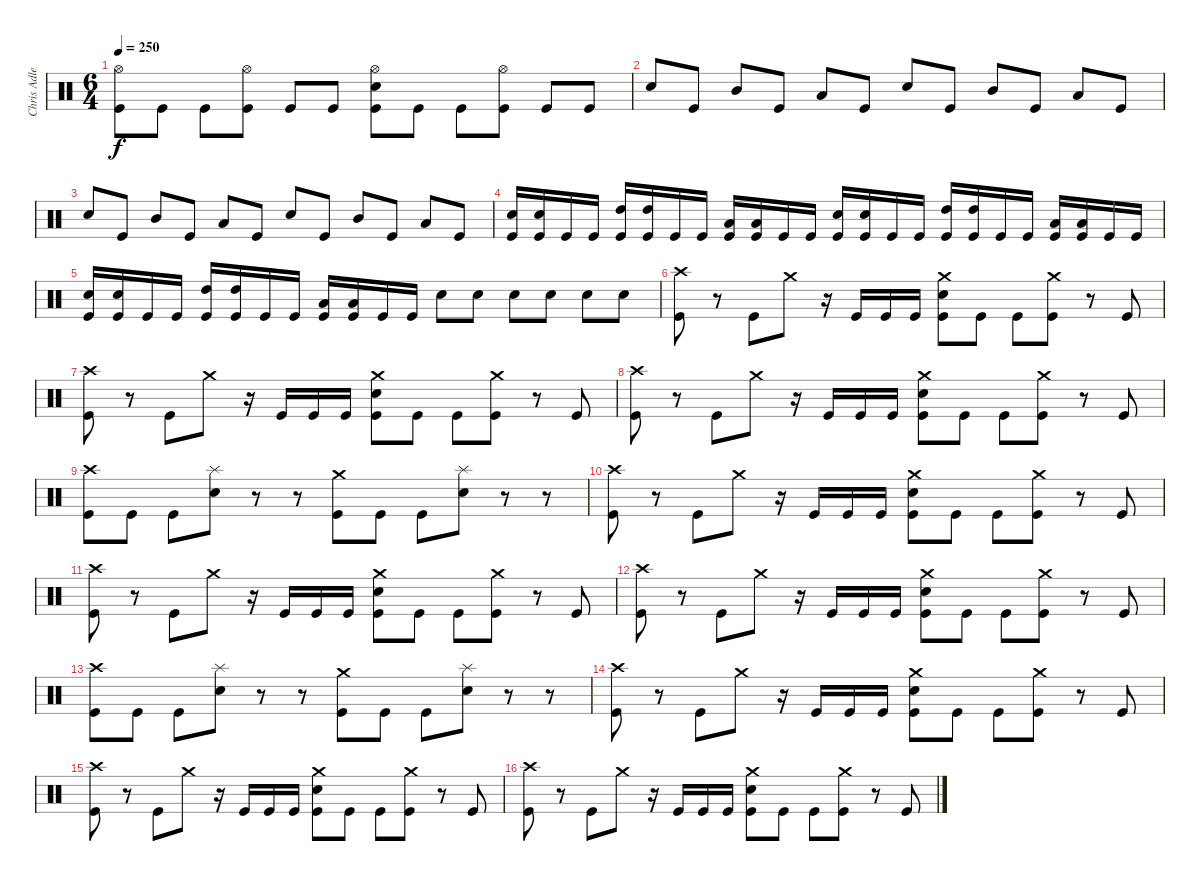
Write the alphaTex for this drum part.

\track ("Chris Adler" "Chris Adle") {instrument percussion}
\staff {score}
\articulation defaults
\ts (6 4)
\tempo 250
\clef neutral
\ks c
("Hi-Hat (open)" "Kick (hit)").8{dy f} "Kick (hit)".8 "Kick (hit)".8 ("Hi-Hat (open)" "Kick (hit)").8 "Kick (hit)".8 "Kick (hit)".8 ("Hi-Hat (open)" "Electric Snare (hit)" "Kick (hit)").8 "Kick (hit)".8 "Kick (hit)".8 ("Hi-Hat (open)" "Kick (hit)").8 "Kick (hit)".8 "Kick (hit)".8 |
"Electric Snare (hit)".8 "Kick (hit)".8 "Mid Tom (hit)".8 "Kick (hit)".8 "Low Tom (hit)".8 "Kick (hit)".8 "Electric Snare (hit)".8 "Kick (hit)".8 "Mid Tom (hit)".8 "Kick (hit)".8 "Low Tom (hit)".8 "Kick (hit)".8 |
"Electric Snare (hit)".8 "Kick (hit)".8 "Mid Tom (hit)".8 "Kick (hit)".8 "Low Tom (hit)".8 "Kick (hit)".8 "Electric Snare (hit)".8 "Kick (hit)".8 "Mid Tom (hit)".8 "Kick (hit)".8 "Low Tom (hit)".8 "Kick (hit)".8 |
("Electric Snare (hit)" "Kick (hit)").16 ("Electric Snare (hit)" "Kick (hit)").16 "Kick (hit)".16 "Kick (hit)".16 ("High Tom (hit)" "Kick (hit)").16 ("High Tom (hit)" "Kick (hit)").16 "Kick (hit)".16 "Kick (hit)".16 ("Low Tom (hit)" "Kick (hit)").16 ("Low Tom (hit)" "Kick (hit)").16 "Kick (hit)".16 "Kick (hit)".16 ("Electric Snare (hit)" "Kick (hit)").16 ("Electric Snare (hit)" "Kick (hit)").16 "Kick (hit)".16 "Kick (hit)".16 ("High Tom (hit)" "Kick (hit)").16 ("High Tom (hit)" "Kick (hit)").16 "Kick (hit)".16 "Kick (hit)".16 ("Low Tom (hit)" "Kick (hit)").16 ("Low Tom (hit)" "Kick (hit)").16 "Kick (hit)".16 "Kick (hit)".16 |
("Electric Snare (hit)" "Kick (hit)").16 ("Electric Snare (hit)" "Kick (hit)").16 "Kick (hit)".16 "Kick (hit)".16 ("High Tom (hit)" "Kick (hit)").16 ("High Tom (hit)" "Kick (hit)").16 "Kick (hit)".16 "Kick (hit)".16 ("Low Tom (hit)" "Kick (hit)").16 ("Low Tom (hit)" "Kick (hit)").16 "Kick (hit)".16 "Kick (hit)".16 "Electric Snare (hit)".8 "Electric Snare (hit)".8 "Electric Snare (hit)".8 "Electric Snare (hit)".8 "Electric Snare (hit)".8 "Electric Snare (hit)".8 |
("Crash high (hit)" "Kick (hit)").8 r.8 "Kick (hit)".8 "Crash medium (hit)".8 r.16 "Kick (hit)".16 "Kick (hit)".16 "Kick (hit)".16 ("Crash medium (hit)" "Electric Snare (hit)" "Kick (hit)").8 "Kick (hit)".8 "Kick (hit)".8 ("Crash medium (hit)" "Kick (hit)").8 r.8 "Kick (hit)".8 |
("Crash high (hit)" "Kick (hit)").8 r.8 "Kick (hit)".8 "Crash medium (hit)".8 r.16 "Kick (hit)".16 "Kick (hit)".16 "Kick (hit)".16 ("Crash medium (hit)" "Electric Snare (hit)" "Kick (hit)").8 "Kick (hit)".8 "Kick (hit)".8 ("Crash medium (hit)" "Kick (hit)").8 r.8 "Kick (hit)".8 |
("Crash high (hit)" "Kick (hit)").8 r.8 "Kick (hit)".8 "Crash medium (hit)".8 r.16 "Kick (hit)".16 "Kick (hit)".16 "Kick (hit)".16 ("Crash medium (hit)" "Electric Snare (hit)" "Kick (hit)").8 "Kick (hit)".8 "Kick (hit)".8 ("Crash medium (hit)" "Kick (hit)").8 r.8 "Kick (hit)".8 |
("Crash high (hit)" "Kick (hit)").8 "Kick (hit)".8 "Kick (hit)".8 ("Splash (hit)" "Electric Snare (hit)").8 r.8 r.8 ("Crash medium (hit)" "Kick (hit)").8 "Kick (hit)".8 "Kick (hit)".8 ("Splash (hit)" "Electric Snare (hit)").8 r.8 r.8 |
("Crash high (hit)" "Kick (hit)").8 r.8 "Kick (hit)".8 "Crash medium (hit)".8 r.16 "Kick (hit)".16 "Kick (hit)".16 "Kick (hit)".16 ("Crash medium (hit)" "Electric Snare (hit)" "Kick (hit)").8 "Kick (hit)".8 "Kick (hit)".8 ("Crash medium (hit)" "Kick (hit)").8 r.8 "Kick (hit)".8 |
("Crash high (hit)" "Kick (hit)").8 r.8 "Kick (hit)".8 "Crash medium (hit)".8 r.16 "Kick (hit)".16 "Kick (hit)".16 "Kick (hit)".16 ("Crash medium (hit)" "Electric Snare (hit)" "Kick (hit)").8 "Kick (hit)".8 "Kick (hit)".8 ("Crash medium (hit)" "Kick (hit)").8 r.8 "Kick (hit)".8 |
("Crash high (hit)" "Kick (hit)").8 r.8 "Kick (hit)".8 "Crash medium (hit)".8 r.16 "Kick (hit)".16 "Kick (hit)".16 "Kick (hit)".16 ("Crash medium (hit)" "Electric Snare (hit)" "Kick (hit)").8 "Kick (hit)".8 "Kick (hit)".8 ("Crash medium (hit)" "Kick (hit)").8 r.8 "Kick (hit)".8 |
("Crash high (hit)" "Kick (hit)").8 "Kick (hit)".8 "Kick (hit)".8 ("Splash (hit)" "Electric Snare (hit)").8 r.8 r.8 ("Crash medium (hit)" "Kick (hit)").8 "Kick (hit)".8 "Kick (hit)".8 ("Splash (hit)" "Electric Snare (hit)").8 r.8 r.8 |
("Crash high (hit)" "Kick (hit)").8 r.8 "Kick (hit)".8 "Crash medium (hit)".8 r.16 "Kick (hit)".16 "Kick (hit)".16 "Kick (hit)".16 ("Crash medium (hit)" "Electric Snare (hit)" "Kick (hit)").8 "Kick (hit)".8 "Kick (hit)".8 ("Crash medium (hit)" "Kick (hit)").8 r.8 "Kick (hit)".8 |
("Crash high (hit)" "Kick (hit)").8 r.8 "Kick (hit)".8 "Crash medium (hit)".8 r.16 "Kick (hit)".16 "Kick (hit)".16 "Kick (hit)".16 ("Crash medium (hit)" "Electric Snare (hit)" "Kick (hit)").8 "Kick (hit)".8 "Kick (hit)".8 ("Crash medium (hit)" "Kick (hit)").8 r.8 "Kick (hit)".8 |
("Crash high (hit)" "Kick (hit)").8 r.8 "Kick (hit)".8 "Crash medium (hit)".8 r.16 "Kick (hit)".16 "Kick (hit)".16 "Kick (hit)".16 ("Crash medium (hit)" "Electric Snare (hit)" "Kick (hit)").8 "Kick (hit)".8 "Kick (hit)".8 ("Crash medium (hit)" "Kick (hit)").8 r.8 "Kick (hit)".8
